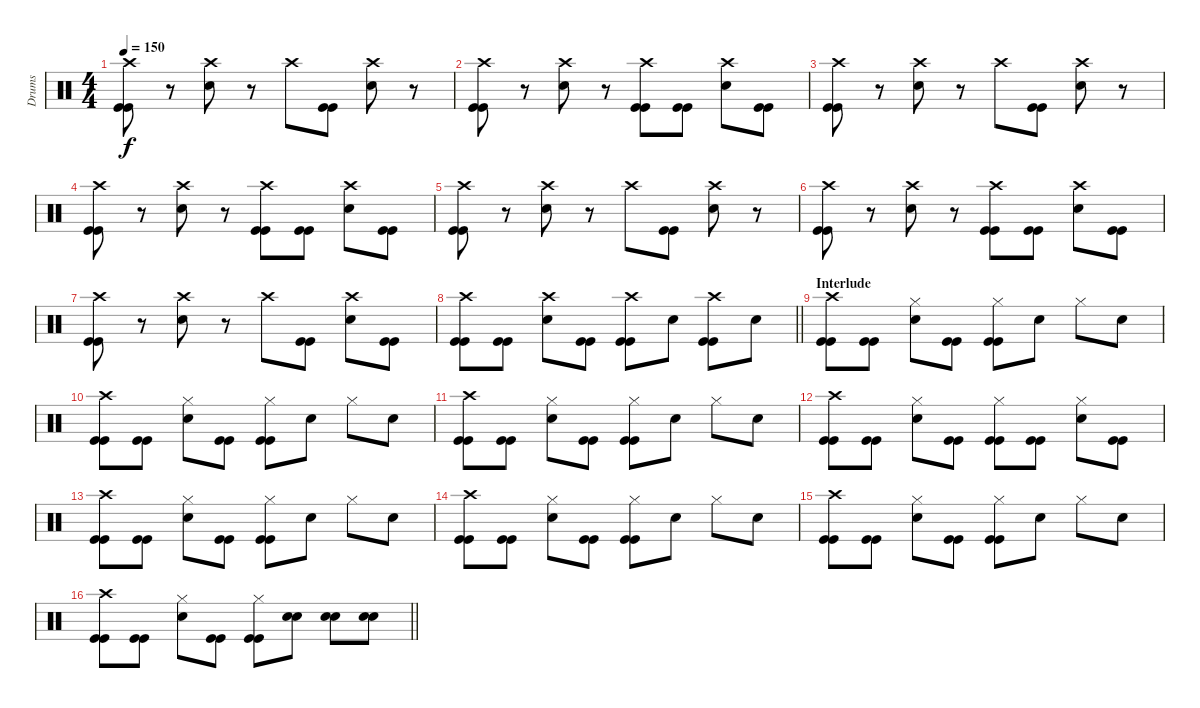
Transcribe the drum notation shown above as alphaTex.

\track ("Drums" "Drums") {instrument percussion}
\staff {score}
\articulation defaults
\ts (4 4)
\tempo 150
\clef neutral
\ks c
("Crash high (hit)" "Kick (hit)" "Kick (hit)").8{dy f} r.8 ("Crash high (hit)" "Snare (hit) 2").8 r.8 "Crash high (hit)".8 ("Kick (hit)" "Kick (hit)").8 ("Crash high (hit)" "Snare (hit) 2").8 r.8 |
("Crash high (hit)" "Kick (hit)" "Kick (hit)").8 r.8 ("Crash high (hit)" "Snare (hit) 2").8 r.8 ("Crash high (hit)" "Kick (hit)" "Kick (hit)").8 ("Kick (hit)" "Kick (hit)").8 ("Crash high (hit)" "Snare (hit) 2").8 ("Kick (hit)" "Kick (hit)").8 |
("Crash high (hit)" "Kick (hit)" "Kick (hit)").8 r.8 ("Crash high (hit)" "Snare (hit) 2").8 r.8 "Crash high (hit)".8 ("Kick (hit)" "Kick (hit)").8 ("Crash high (hit)" "Snare (hit) 2").8 r.8 |
("Crash high (hit)" "Kick (hit)" "Kick (hit)").8 r.8 ("Crash high (hit)" "Snare (hit) 2").8 r.8 ("Crash high (hit)" "Kick (hit)" "Kick (hit)").8 ("Kick (hit)" "Kick (hit)").8 ("Crash high (hit)" "Snare (hit) 2").8 ("Kick (hit)" "Kick (hit)").8 |
("Crash high (hit)" "Kick (hit)" "Kick (hit)").8 r.8 ("Crash high (hit)" "Snare (hit) 2").8 r.8 "Crash high (hit)".8 ("Kick (hit)" "Kick (hit)").8 ("Crash high (hit)" "Snare (hit) 2").8 r.8 |
("Crash high (hit)" "Kick (hit)" "Kick (hit)").8 r.8 ("Crash high (hit)" "Snare (hit) 2").8 r.8 ("Crash high (hit)" "Kick (hit)" "Kick (hit)").8 ("Kick (hit)" "Kick (hit)").8 ("Crash high (hit)" "Snare (hit) 2").8 ("Kick (hit)" "Kick (hit)").8 |
("Crash high (hit)" "Kick (hit)" "Kick (hit)").8 r.8 ("Crash high (hit)" "Snare (hit) 2").8 r.8 "Crash high (hit)".8 ("Kick (hit)" "Kick (hit)").8 ("Crash high (hit)" "Snare (hit) 2").8 ("Kick (hit)" "Kick (hit)").8 |
\barLineRight lightlight
("Crash high (hit)" "Kick (hit)" "Kick (hit)").8 ("Kick (hit)" "Kick (hit)").8 ("Crash high (hit)" "Snare (hit) 2").8 ("Kick (hit)" "Kick (hit)").8 ("Crash high (hit)" "Kick (hit)" "Kick (hit)").8 "Snare (hit) 2".8 ("Crash high (hit)" "Kick (hit)" "Kick (hit)").8 "Snare (hit) 2".8 |
\section ("" "Interlude")
("Crash high (hit)" "Kick (hit)" "Kick (hit)").8 ("Kick (hit)" "Kick (hit)").8 ("Hi-Hat (closed)" "Snare (hit) 2").8 ("Kick (hit)" "Kick (hit)").8 ("Hi-Hat (closed)" "Kick (hit)" "Kick (hit)").8 "Snare (hit) 2".8 "Hi-Hat (closed)".8 "Snare (hit) 2".8 |
("Crash high (hit)" "Kick (hit)" "Kick (hit)").8 ("Kick (hit)" "Kick (hit)").8 ("Hi-Hat (closed)" "Snare (hit) 2").8 ("Kick (hit)" "Kick (hit)").8 ("Hi-Hat (closed)" "Kick (hit)" "Kick (hit)").8 "Snare (hit) 2".8 "Hi-Hat (closed)".8 "Snare (hit) 2".8 |
("Crash high (hit)" "Kick (hit)" "Kick (hit)").8 ("Kick (hit)" "Kick (hit)").8 ("Hi-Hat (closed)" "Snare (hit) 2").8 ("Kick (hit)" "Kick (hit)").8 ("Hi-Hat (closed)" "Kick (hit)" "Kick (hit)").8 "Snare (hit) 2".8 "Hi-Hat (closed)".8 "Snare (hit) 2".8 |
("Crash high (hit)" "Kick (hit)" "Kick (hit)").8 ("Kick (hit)" "Kick (hit)").8 ("Hi-Hat (closed)" "Snare (hit) 2").8 ("Kick (hit)" "Kick (hit)").8 ("Hi-Hat (closed)" "Kick (hit)" "Kick (hit)").8 ("Kick (hit)" "Kick (hit)").8 ("Hi-Hat (closed)" "Snare (hit) 2").8 ("Kick (hit)" "Kick (hit)").8 |
("Crash high (hit)" "Kick (hit)" "Kick (hit)").8 ("Kick (hit)" "Kick (hit)").8 ("Hi-Hat (closed)" "Snare (hit) 2").8 ("Kick (hit)" "Kick (hit)").8 ("Hi-Hat (closed)" "Kick (hit)" "Kick (hit)").8 "Snare (hit) 2".8 "Hi-Hat (closed)".8 "Snare (hit) 2".8 |
("Crash high (hit)" "Kick (hit)" "Kick (hit)").8 ("Kick (hit)" "Kick (hit)").8 ("Hi-Hat (closed)" "Snare (hit) 2").8 ("Kick (hit)" "Kick (hit)").8 ("Hi-Hat (closed)" "Kick (hit)" "Kick (hit)").8 "Snare (hit) 2".8 "Hi-Hat (closed)".8 "Snare (hit) 2".8 |
("Crash high (hit)" "Kick (hit)" "Kick (hit)").8 ("Kick (hit)" "Kick (hit)").8 ("Hi-Hat (closed)" "Snare (hit) 2").8 ("Kick (hit)" "Kick (hit)").8 ("Hi-Hat (closed)" "Kick (hit)" "Kick (hit)").8 "Snare (hit) 2".8 "Hi-Hat (closed)".8 "Snare (hit) 2".8 |
\barLineRight lightlight
("Crash high (hit)" "Kick (hit)" "Kick (hit)").8 ("Kick (hit)" "Kick (hit)").8 ("Hi-Hat (closed)" "Snare (hit) 2").8 ("Kick (hit)" "Kick (hit)").8 ("Hi-Hat (closed)" "Kick (hit)" "Kick (hit)").8 ("Snare (hit) 2" "Snare (hit) 2").8 ("Snare (hit) 2" "Snare (hit) 2").8 ("Snare (hit) 2" "Snare (hit) 2").8
